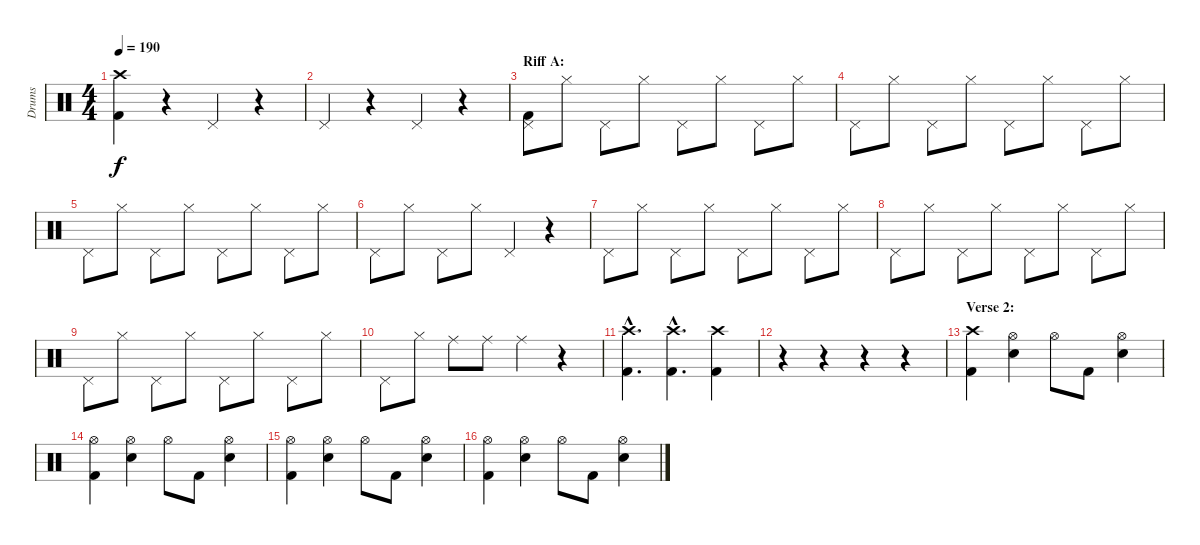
\track ("Drums" "Drums") {instrument percussion}
\staff {score}
\articulation defaults
\ts (4 4)
\tempo 190
\clef neutral
\ks c
("Crash high (hit)" "Kick (hit) 2").4{dy f} r.4 "Pedal Hi-Hat (hit)".4 r.4 |
"Pedal Hi-Hat (hit)".4 r.4 "Pedal Hi-Hat (hit)".4 r.4 |
\section ("" "Riff A:")
("Pedal Hi-Hat (hit)" "Kick (hit) 2").8 "Hi-Hat (closed)".8 "Pedal Hi-Hat (hit)".8 "Hi-Hat (closed)".8 "Pedal Hi-Hat (hit)".8 "Hi-Hat (closed)".8 "Pedal Hi-Hat (hit)".8 "Hi-Hat (closed)".8 |
"Pedal Hi-Hat (hit)".8 "Hi-Hat (closed)".8 "Pedal Hi-Hat (hit)".8 "Hi-Hat (closed)".8 "Pedal Hi-Hat (hit)".8 "Hi-Hat (closed)".8 "Pedal Hi-Hat (hit)".8 "Hi-Hat (closed)".8 |
"Pedal Hi-Hat (hit)".8 "Hi-Hat (closed)".8 "Pedal Hi-Hat (hit)".8 "Hi-Hat (closed)".8 "Pedal Hi-Hat (hit)".8 "Hi-Hat (closed)".8 "Pedal Hi-Hat (hit)".8 "Hi-Hat (closed)".8 |
"Pedal Hi-Hat (hit)".8 "Hi-Hat (closed)".8 "Pedal Hi-Hat (hit)".8 "Hi-Hat (closed)".8 "Pedal Hi-Hat (hit)".4 r.4 |
"Pedal Hi-Hat (hit)".8 "Hi-Hat (closed)".8 "Pedal Hi-Hat (hit)".8 "Hi-Hat (closed)".8 "Pedal Hi-Hat (hit)".8 "Hi-Hat (closed)".8 "Pedal Hi-Hat (hit)".8 "Hi-Hat (closed)".8 |
"Pedal Hi-Hat (hit)".8 "Hi-Hat (closed)".8 "Pedal Hi-Hat (hit)".8 "Hi-Hat (closed)".8 "Pedal Hi-Hat (hit)".8 "Hi-Hat (closed)".8 "Pedal Hi-Hat (hit)".8 "Hi-Hat (closed)".8 |
"Pedal Hi-Hat (hit)".8 "Hi-Hat (closed)".8 "Pedal Hi-Hat (hit)".8 "Hi-Hat (closed)".8 "Pedal Hi-Hat (hit)".8 "Hi-Hat (closed)".8 "Pedal Hi-Hat (hit)".8 "Hi-Hat (closed)".8 |
"Pedal Hi-Hat (hit)".8 "Hi-Hat (closed)".8 "Ride (middle)".8 "Ride (middle)".8 "Ride (middle)".4 r.4 |
("Crash high (hit)"{hac} "Kick (hit) 2"{hac}).4{d} ("Crash high (hit)"{hac} "Kick (hit) 2"{hac}).4{d} ("Crash high (hit)" "Kick (hit) 2").4 |
r.4 r.4 r.4 r.4 |
\section ("" "Verse 2:")
("Crash high (hit)" "Kick (hit) 2").4 ("Hi-Hat (open)" "Electric Snare (hit)").4 "Hi-Hat (open)".8 "Kick (hit) 2".8 ("Hi-Hat (open)" "Electric Snare (hit)").4 |
("Hi-Hat (open)" "Kick (hit) 2").4 ("Hi-Hat (open)" "Electric Snare (hit)").4 "Hi-Hat (open)".8 "Kick (hit) 2".8 ("Hi-Hat (open)" "Electric Snare (hit)").4 |
("Hi-Hat (open)" "Kick (hit) 2").4 ("Hi-Hat (open)" "Electric Snare (hit)").4 "Hi-Hat (open)".8 "Kick (hit) 2".8 ("Hi-Hat (open)" "Electric Snare (hit)").4 |
("Hi-Hat (open)" "Kick (hit) 2").4 ("Hi-Hat (open)" "Electric Snare (hit)").4 "Hi-Hat (open)".8 "Kick (hit) 2".8 ("Hi-Hat (open)" "Electric Snare (hit)").4
